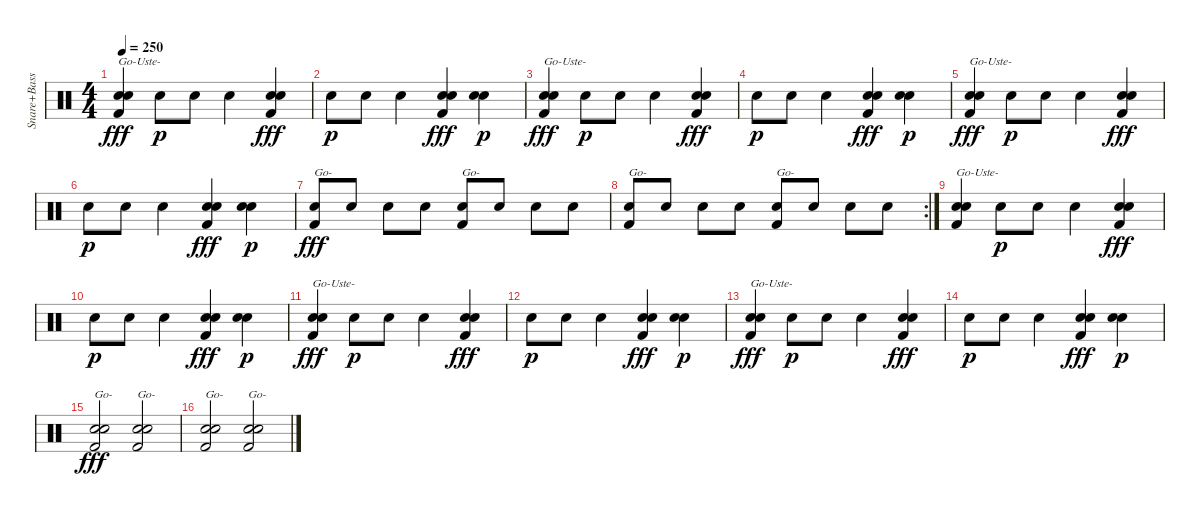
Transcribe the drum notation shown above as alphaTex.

\track ("Snare+Bass" "Snare+Bass") {instrument percussion}
\staff {score}
\articulation defaults
\ts (4 4)
\tempo 250
\clef neutral
\ks c
("Snare (hit) 2" "Snare (hit) 2" "Kick (hit) 2").4{txt "Go-Uste-" dy fff} "Snare (hit) 2".8{dy p} "Snare (hit) 2".8 "Snare (hit) 2".4 ("Snare (hit) 2" "Snare (hit) 2" "Kick (hit) 2").4{dy fff} |
"Snare (hit) 2".8{dy p} "Snare (hit) 2".8 "Snare (hit) 2".4 ("Snare (hit) 2" "Snare (hit) 2" "Kick (hit) 2").4{dy fff} ("Snare (hit) 2" "Snare (hit) 2").4{dy p} |
("Snare (hit) 2" "Snare (hit) 2" "Kick (hit) 2").4{txt "Go-Uste-" dy fff} "Snare (hit) 2".8{dy p} "Snare (hit) 2".8 "Snare (hit) 2".4 ("Snare (hit) 2" "Snare (hit) 2" "Kick (hit) 2").4{dy fff} |
"Snare (hit) 2".8{dy p} "Snare (hit) 2".8 "Snare (hit) 2".4 ("Snare (hit) 2" "Snare (hit) 2" "Kick (hit) 2").4{dy fff} ("Snare (hit) 2" "Snare (hit) 2").4{dy p} |
("Snare (hit) 2" "Snare (hit) 2" "Kick (hit) 2").4{txt "Go-Uste-" dy fff} "Snare (hit) 2".8{dy p} "Snare (hit) 2".8 "Snare (hit) 2".4 ("Snare (hit) 2" "Snare (hit) 2" "Kick (hit) 2").4{dy fff} |
"Snare (hit) 2".8{dy p} "Snare (hit) 2".8 "Snare (hit) 2".4 ("Snare (hit) 2" "Snare (hit) 2" "Kick (hit) 2").4{dy fff} ("Snare (hit) 2" "Snare (hit) 2").4{dy p} |
("Snare (hit) 2" "Kick (hit) 2").8{txt "Go-" dy fff} "Snare (hit) 2".8 "Snare (hit) 2".8 "Snare (hit) 2".8 ("Snare (hit) 2" "Kick (hit) 2").8{txt "Go-"} "Snare (hit) 2".8 "Snare (hit) 2".8 "Snare (hit) 2".8 |
\rc 2
("Snare (hit) 2" "Kick (hit) 2").8{txt "Go-"} "Snare (hit) 2".8 "Snare (hit) 2".8 "Snare (hit) 2".8 ("Snare (hit) 2" "Kick (hit) 2").8{txt "Go-"} "Snare (hit) 2".8 "Snare (hit) 2".8 "Snare (hit) 2".8 |
("Snare (hit) 2" "Snare (hit) 2" "Kick (hit) 2").4{txt "Go-Uste-"} "Snare (hit) 2".8{dy p} "Snare (hit) 2".8 "Snare (hit) 2".4 ("Snare (hit) 2" "Snare (hit) 2" "Kick (hit) 2").4{dy fff} |
"Snare (hit) 2".8{dy p} "Snare (hit) 2".8 "Snare (hit) 2".4 ("Snare (hit) 2" "Snare (hit) 2" "Kick (hit) 2").4{dy fff} ("Snare (hit) 2" "Snare (hit) 2").4{dy p} |
("Snare (hit) 2" "Snare (hit) 2" "Kick (hit) 2").4{txt "Go-Uste-" dy fff} "Snare (hit) 2".8{dy p} "Snare (hit) 2".8 "Snare (hit) 2".4 ("Snare (hit) 2" "Snare (hit) 2" "Kick (hit) 2").4{dy fff} |
"Snare (hit) 2".8{dy p} "Snare (hit) 2".8 "Snare (hit) 2".4 ("Snare (hit) 2" "Snare (hit) 2" "Kick (hit) 2").4{dy fff} ("Snare (hit) 2" "Snare (hit) 2").4{dy p} |
("Snare (hit) 2" "Snare (hit) 2" "Kick (hit) 2").4{txt "Go-Uste-" dy fff} "Snare (hit) 2".8{dy p} "Snare (hit) 2".8 "Snare (hit) 2".4 ("Snare (hit) 2" "Snare (hit) 2" "Kick (hit) 2").4{dy fff} |
"Snare (hit) 2".8{dy p} "Snare (hit) 2".8 "Snare (hit) 2".4 ("Snare (hit) 2" "Snare (hit) 2" "Kick (hit) 2").4{dy fff} ("Snare (hit) 2" "Snare (hit) 2").4{dy p} |
("Snare (hit) 2" "Snare (hit) 2" "Kick (hit) 2").2{txt "Go-" dy fff} ("Snare (hit) 2" "Snare (hit) 2" "Kick (hit) 2").2{txt "Go-"} |
("Snare (hit) 2" "Snare (hit) 2" "Kick (hit) 2").2{txt "Go-"} ("Snare (hit) 2" "Snare (hit) 2" "Kick (hit) 2").2{txt "Go-"}
